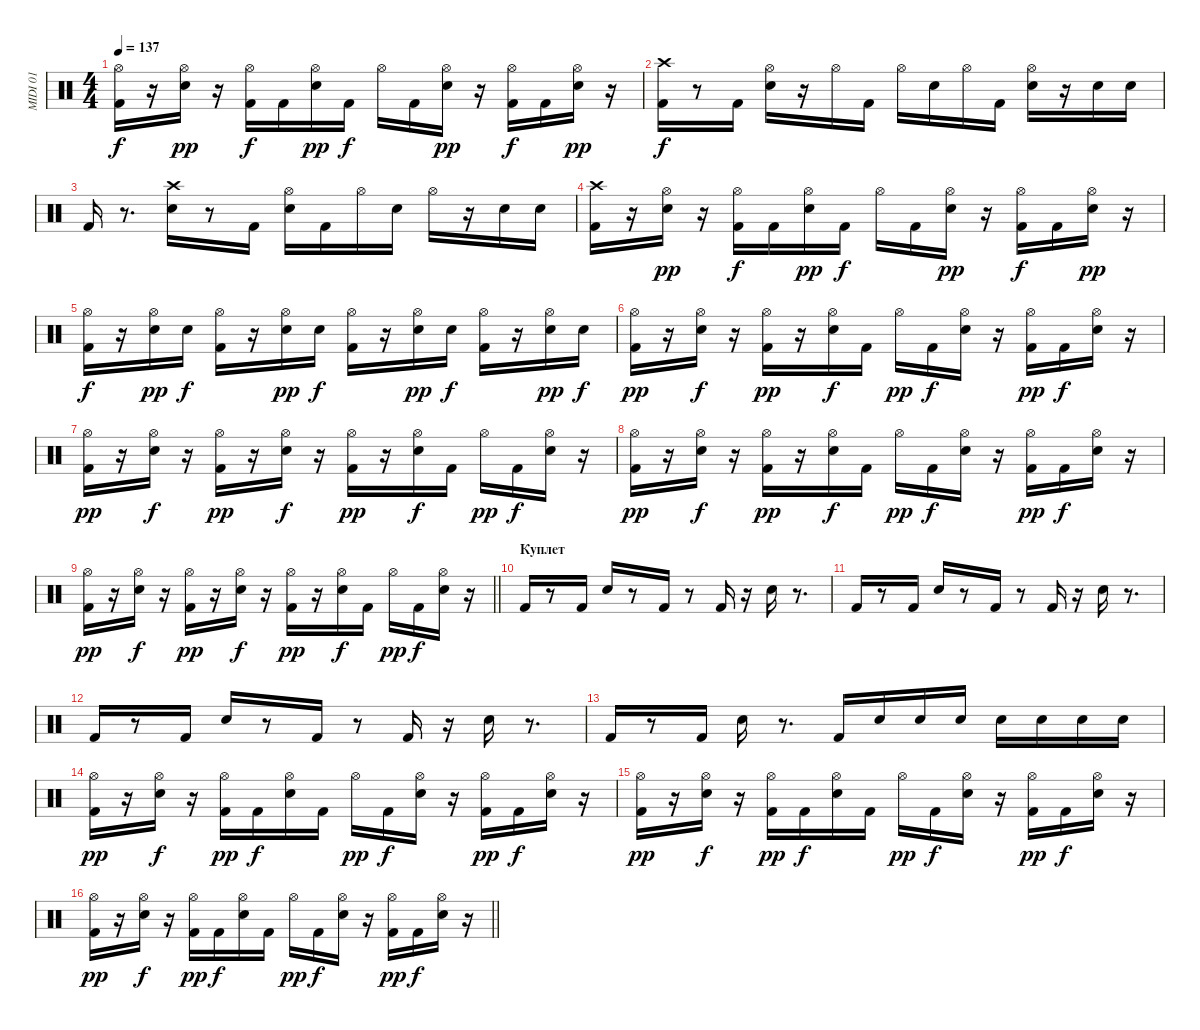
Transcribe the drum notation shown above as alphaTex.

\track ("MIDI 01" "MIDI 01") {instrument percussion}
\staff {score}
\articulation defaults
\ts (4 4)
\tempo 137
\clef neutral
\ks c
("Kick (hit) 2" "Hi-Hat (open)").16{dy f} r.16 ("Snare (hit) 2" "Hi-Hat (open)").16{dy pp} r.16 ("Kick (hit) 2" "Hi-Hat (open)").16{dy f} "Kick (hit) 2".16 ("Snare (hit) 2" "Hi-Hat (open)").16{dy pp} "Kick (hit) 2".16{dy f} "Hi-Hat (open)".16 "Kick (hit) 2".16 ("Snare (hit) 2" "Hi-Hat (open)").16{dy pp} r.16 ("Kick (hit) 2" "Hi-Hat (open)").16{dy f} "Kick (hit) 2".16 ("Snare (hit) 2" "Hi-Hat (open)").16{dy pp} r.16 |
("Kick (hit) 2" "Crash high (hit)").16{dy f} r.8 "Kick (hit) 2".16 ("Snare (hit) 2" "Hi-Hat (open)").16 r.16 "Hi-Hat (open)".16 "Kick (hit) 2".16 "Hi-Hat (open)".16 "Snare (hit) 2".16 "Hi-Hat (open)".16 "Kick (hit) 2".16 ("Snare (hit) 2" "Hi-Hat (open)").16 r.16 "Snare (hit) 2".16 "Snare (hit) 2".16 |
"Kick (hit) 2".16 r.8{d} ("Snare (hit) 2" "Crash high (hit)").16 r.8 "Kick (hit) 2".16 ("Snare (hit) 2" "Hi-Hat (open)").16 "Kick (hit) 2".16 "Hi-Hat (open)".16 "Snare (hit) 2".16 "Hi-Hat (open)".16 r.16 "Snare (hit) 2".16 "Snare (hit) 2".16 |
("Kick (hit) 2" "Crash high (hit)").16 r.16 ("Snare (hit) 2" "Hi-Hat (open)").16{dy pp} r.16 ("Kick (hit) 2" "Hi-Hat (open)").16{dy f} "Kick (hit) 2".16 ("Snare (hit) 2" "Hi-Hat (open)").16{dy pp} "Kick (hit) 2".16{dy f} "Hi-Hat (open)".16 "Kick (hit) 2".16 ("Snare (hit) 2" "Hi-Hat (open)").16{dy pp} r.16 ("Kick (hit) 2" "Hi-Hat (open)").16{dy f} "Kick (hit) 2".16 ("Snare (hit) 2" "Hi-Hat (open)").16{dy pp} r.16 |
("Kick (hit) 2" "Hi-Hat (open)").16{dy f} r.16 ("Snare (hit) 2" "Hi-Hat (open)").16{dy pp} "Snare (hit) 2".16{dy f} ("Kick (hit) 2" "Hi-Hat (open)").16 r.16 ("Snare (hit) 2" "Hi-Hat (open)").16{dy pp} "Snare (hit) 2".16{dy f} ("Kick (hit) 2" "Hi-Hat (open)").16 r.16 ("Snare (hit) 2" "Hi-Hat (open)").16{dy pp} "Snare (hit) 2".16{dy f} ("Kick (hit) 2" "Hi-Hat (open)").16 r.16 ("Snare (hit) 2" "Hi-Hat (open)").16{dy pp} "Snare (hit) 2".16{dy f} |
("Kick (hit) 2" "Hi-Hat (open)").16{dy pp} r.16 ("Hi-Hat (open)" "Snare (hit) 2").16{dy f} r.16 ("Hi-Hat (open)" "Kick (hit) 2").16{dy pp} r.16 ("Hi-Hat (open)" "Snare (hit) 2").16{dy f} "Kick (hit) 2".16 "Hi-Hat (open)".16{dy pp} "Kick (hit) 2".16{dy f} ("Hi-Hat (open)" "Snare (hit) 2").16 r.16 ("Hi-Hat (open)" "Kick (hit) 2").16{dy pp} "Kick (hit) 2".16{dy f} ("Hi-Hat (open)" "Snare (hit) 2").16 r.16 |
("Hi-Hat (open)" "Kick (hit) 2").16{dy pp} r.16 ("Hi-Hat (open)" "Snare (hit) 2").16{dy f} r.16 ("Hi-Hat (open)" "Kick (hit) 2").16{dy pp} r.16 ("Hi-Hat (open)" "Snare (hit) 2").16{dy f} r.16 ("Hi-Hat (open)" "Kick (hit) 2").16{dy pp} r.16 ("Hi-Hat (open)" "Snare (hit) 2").16{dy f} "Kick (hit) 2".16 "Hi-Hat (open)".16{dy pp} "Kick (hit) 2".16{dy f} ("Hi-Hat (open)" "Snare (hit) 2").16 r.16 |
("Hi-Hat (open)" "Kick (hit) 2").16{dy pp} r.16 ("Hi-Hat (open)" "Snare (hit) 2").16{dy f} r.16 ("Hi-Hat (open)" "Kick (hit) 2").16{dy pp} r.16 ("Hi-Hat (open)" "Snare (hit) 2").16{dy f} "Kick (hit) 2".16 "Hi-Hat (open)".16{dy pp} "Kick (hit) 2".16{dy f} ("Hi-Hat (open)" "Snare (hit) 2").16 r.16 ("Hi-Hat (open)" "Kick (hit) 2").16{dy pp} "Kick (hit) 2".16{dy f} ("Hi-Hat (open)" "Snare (hit) 2").16 r.16 |
\barLineRight lightlight
("Hi-Hat (open)" "Kick (hit) 2").16{dy pp} r.16 ("Hi-Hat (open)" "Snare (hit) 2").16{dy f} r.16 ("Hi-Hat (open)" "Kick (hit) 2").16{dy pp} r.16 ("Hi-Hat (open)" "Snare (hit) 2").16{dy f} r.16 ("Hi-Hat (open)" "Kick (hit) 2").16{dy pp} r.16 ("Hi-Hat (open)" "Snare (hit) 2").16{dy f} "Kick (hit) 2".16 "Hi-Hat (open)".16{dy pp} "Kick (hit) 2".16{dy f} ("Hi-Hat (open)" "Snare (hit) 2").16 r.16 |
\section ("" "Куплет")
"Kick (hit) 2".16 r.8 "Kick (hit) 2".16 "Snare (hit) 2".16 r.8 "Kick (hit) 2".16 r.8 "Kick (hit) 2".16 r.16 "Snare (hit) 2".16 r.8{d} |
"Kick (hit) 2".16 r.8 "Kick (hit) 2".16 "Snare (hit) 2".16 r.8 "Kick (hit) 2".16 r.8 "Kick (hit) 2".16 r.16 "Snare (hit) 2".16 r.8{d} |
"Kick (hit) 2".16 r.8 "Kick (hit) 2".16 "Snare (hit) 2".16 r.8 "Kick (hit) 2".16 r.8 "Kick (hit) 2".16 r.16 "Snare (hit) 2".16 r.8{d} |
"Kick (hit) 2".16 r.8 "Kick (hit) 2".16 "Snare (hit) 2".16 r.8{d} "Kick (hit) 2".16 "Snare (hit) 2".16 "Snare (hit) 2".16 "Snare (hit) 2".16 "Snare (hit) 2".16 "Snare (hit) 2".16 "Snare (hit) 2".16 "Snare (hit) 2".16 |
("Hi-Hat (open)" "Kick (hit) 2").16{dy pp} r.16 ("Snare (hit) 2" "Hi-Hat (open)").16{dy f} r.16 ("Kick (hit) 2" "Hi-Hat (open)").16{dy pp} "Kick (hit) 2".16{dy f} ("Snare (hit) 2" "Hi-Hat (open)").16 "Kick (hit) 2".16 "Hi-Hat (open)".16{dy pp} "Kick (hit) 2".16{dy f} ("Snare (hit) 2" "Hi-Hat (open)").16 r.16 ("Kick (hit) 2" "Hi-Hat (open)").16{dy pp} "Kick (hit) 2".16{dy f} ("Snare (hit) 2" "Hi-Hat (open)").16 r.16 |
("Hi-Hat (open)" "Kick (hit) 2").16{dy pp} r.16 ("Snare (hit) 2" "Hi-Hat (open)").16{dy f} r.16 ("Kick (hit) 2" "Hi-Hat (open)").16{dy pp} "Kick (hit) 2".16{dy f} ("Snare (hit) 2" "Hi-Hat (open)").16 "Kick (hit) 2".16 "Hi-Hat (open)".16{dy pp} "Kick (hit) 2".16{dy f} ("Snare (hit) 2" "Hi-Hat (open)").16 r.16 ("Kick (hit) 2" "Hi-Hat (open)").16{dy pp} "Kick (hit) 2".16{dy f} ("Snare (hit) 2" "Hi-Hat (open)").16 r.16 |
\barLineRight lightlight
("Hi-Hat (open)" "Kick (hit) 2").16{dy pp} r.16 ("Snare (hit) 2" "Hi-Hat (open)").16{dy f} r.16 ("Kick (hit) 2" "Hi-Hat (open)").16{dy pp} "Kick (hit) 2".16{dy f} ("Snare (hit) 2" "Hi-Hat (open)").16 "Kick (hit) 2".16 "Hi-Hat (open)".16{dy pp} "Kick (hit) 2".16{dy f} ("Snare (hit) 2" "Hi-Hat (open)").16 r.16 ("Kick (hit) 2" "Hi-Hat (open)").16{dy pp} "Kick (hit) 2".16{dy f} ("Snare (hit) 2" "Hi-Hat (open)").16 r.16
